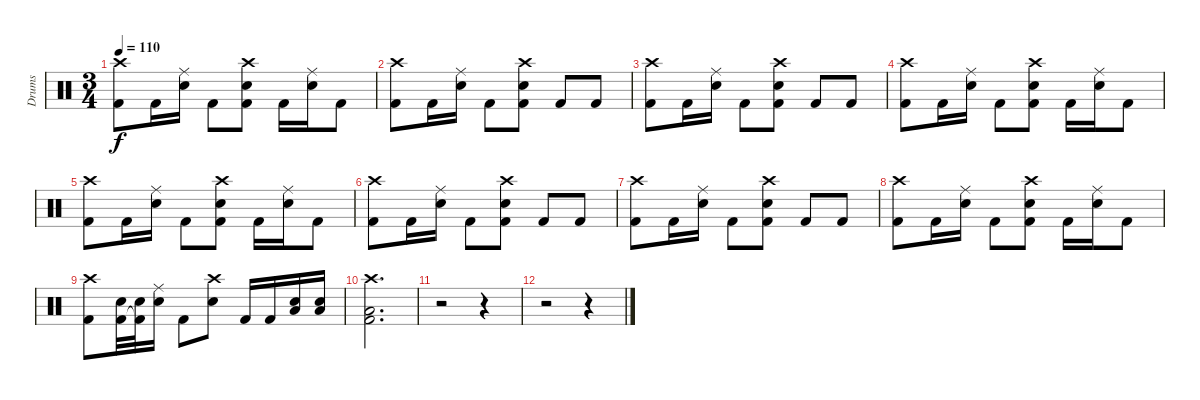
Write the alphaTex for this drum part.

\track ("Drums" "Drums") {instrument percussion}
\staff {score}
\articulation defaults
\ts (3 4)
\tempo 110
\clef neutral
\ks c
("Crash high (hit)" "Kick (hit) 2").8{dy f} "Kick (hit) 2".16 ("Ride (middle)" "Snare (hit) 2").16 "Kick (hit) 2".8 ("Crash high (hit)" "Snare (hit) 2" "Kick (hit) 2").8 "Kick (hit) 2".16 ("Ride (middle)" "Snare (hit) 2").16 "Kick (hit) 2".8 |
("Crash high (hit)" "Kick (hit) 2").8 "Kick (hit) 2".16 ("Ride (middle)" "Snare (hit) 2").16 "Kick (hit) 2".8 ("Crash high (hit)" "Snare (hit) 2" "Kick (hit) 2").8 "Kick (hit) 2".8 "Kick (hit) 2".8 |
("Crash high (hit)" "Kick (hit) 2").8 "Kick (hit) 2".16 ("Ride (middle)" "Snare (hit) 2").16 "Kick (hit) 2".8 ("Crash high (hit)" "Snare (hit) 2" "Kick (hit) 2").8 "Kick (hit) 2".8 "Kick (hit) 2".8 |
("Crash high (hit)" "Kick (hit) 2").8 "Kick (hit) 2".16 ("Ride (middle)" "Snare (hit) 2").16 "Kick (hit) 2".8 ("Crash high (hit)" "Snare (hit) 2" "Kick (hit) 2").8 "Kick (hit) 2".16 ("Ride (middle)" "Snare (hit) 2").16 "Kick (hit) 2".8 |
("Crash high (hit)" "Kick (hit) 2").8 "Kick (hit) 2".16 ("Ride (middle)" "Snare (hit) 2").16 "Kick (hit) 2".8 ("Crash high (hit)" "Snare (hit) 2" "Kick (hit) 2").8 "Kick (hit) 2".16 ("Ride (middle)" "Snare (hit) 2").16 "Kick (hit) 2".8 |
("Crash high (hit)" "Kick (hit) 2").8 "Kick (hit) 2".16 ("Ride (middle)" "Snare (hit) 2").16 "Kick (hit) 2".8 ("Crash high (hit)" "Snare (hit) 2" "Kick (hit) 2").8 "Kick (hit) 2".8 "Kick (hit) 2".8 |
("Crash high (hit)" "Kick (hit) 2").8 "Kick (hit) 2".16 ("Ride (middle)" "Snare (hit) 2").16 "Kick (hit) 2".8 ("Crash high (hit)" "Snare (hit) 2" "Kick (hit) 2").8 "Kick (hit) 2".8 "Kick (hit) 2".8 |
("Crash high (hit)" "Kick (hit) 2").8 "Kick (hit) 2".16 ("Ride (middle)" "Snare (hit) 2").16 "Kick (hit) 2".8 ("Crash high (hit)" "Snare (hit) 2" "Kick (hit) 2").8 "Kick (hit) 2".16 ("Ride (middle)" "Snare (hit) 2").16 "Kick (hit) 2".8 |
("Crash high (hit)" "Kick (hit) 2").8 ("Snare (hit) 2" "Kick (hit) 2").32 ("Snare (hit) 2" "Kick (hit) 2"{t}).32 ("Ride (middle)" "Snare (hit) 2").16 "Kick (hit) 2".8 ("Crash high (hit)" "Snare (hit) 2").8 "Kick (hit) 2".16 "Kick (hit) 2".16 ("Low Tom (hit)" "Snare (hit) 2").16 ("Low Tom (hit)" "Snare (hit) 2").16 |
("Crash high (hit)" "Low Floor Tom (hit)" "Kick (hit) 2").2{d} |
r.2 r.4 |
r.2 r.4
